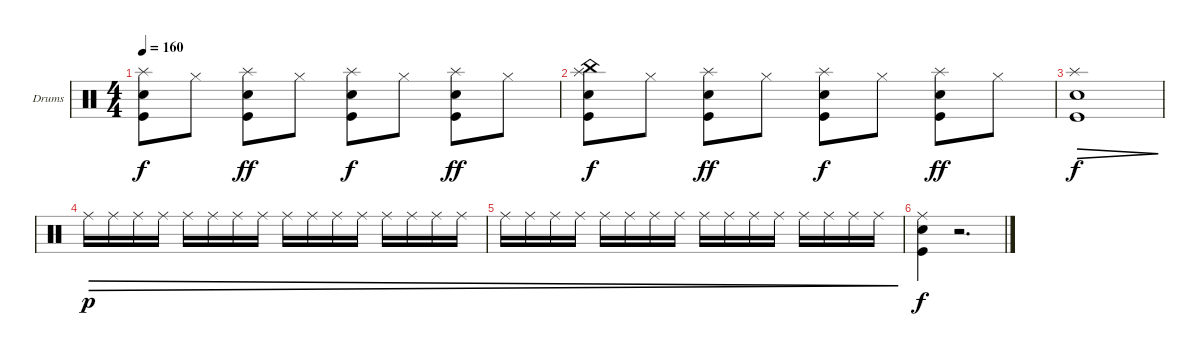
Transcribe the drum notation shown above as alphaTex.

\bracketExtendMode groupsimilarinstruments
\firstSystemTrackNameOrientation horizontal
\otherSystemsTrackNameOrientation horizontal
\track ("Drumkit" "Drums") {instrument percussion}
\staff {score}
\articulation defaults
\ts (4 4)
\tempo 160
\clef neutral
\ks c
("Kick (hit)" "Snare (hit) 2" "Splash (hit)").8{dy f} "Hi-Hat (closed)".8 ("Kick (hit)" "Snare (hit) 2" "Splash (hit)").8{dy ff} "Hi-Hat (closed)".8 ("Kick (hit)" "Snare (hit) 2" "Splash (hit)").8{dy f} "Hi-Hat (closed)".8 ("Kick (hit)" "Snare (hit) 2" "Splash (hit)").8{dy ff} "Hi-Hat (closed)".8 |
("Kick (hit)" "Snare (hit) 2" "Splash (hit)" "China (hit)").8{dy f} "Hi-Hat (closed)".8 ("Kick (hit)" "Snare (hit) 2" "Splash (hit)").8{dy ff} "Hi-Hat (closed)".8 ("Kick (hit)" "Snare (hit) 2" "Splash (hit)").8{dy f} "Hi-Hat (closed)".8 ("Kick (hit)" "Snare (hit) 2" "Splash (hit)").8{dy ff} "Hi-Hat (closed)".8 |
("Kick (hit)" "Snare (hit) 2" "Splash (hit)").1{dec dy f} |
"Ride (middle)".16{dec dy p} "Ride (middle)".16{dec} "Ride (middle)".16{dec} "Ride (middle)".16{dec} "Ride (middle)".16{dec} "Ride (middle)".16{dec} "Ride (middle)".16{dec} "Ride (middle)".16{dec} "Ride (middle)".16{dec} "Ride (middle)".16{dec} "Ride (middle)".16{dec} "Ride (middle)".16{dec} "Ride (middle)".16{dec} "Ride (middle)".16{dec} "Ride (middle)".16{dec} "Ride (middle)".16{dec} |
"Ride (middle)".16{dec} "Ride (middle)".16{dec} "Ride (middle)".16{dec} "Ride (middle)".16{dec} "Ride (middle)".16{dec} "Ride (middle)".16{dec} "Ride (middle)".16{dec} "Ride (middle)".16{dec} "Ride (middle)".16{dec} "Ride (middle)".16{dec} "Ride (middle)".16{dec} "Ride (middle)".16{dec} "Ride (middle)".16{dec} "Ride (middle)".16{dec} "Ride (middle)".16{dec} "Ride (middle)".16{dec} |
("Kick (hit)" "Snare (hit) 2" "Ride (middle)").4{dy f} r.2{d}
